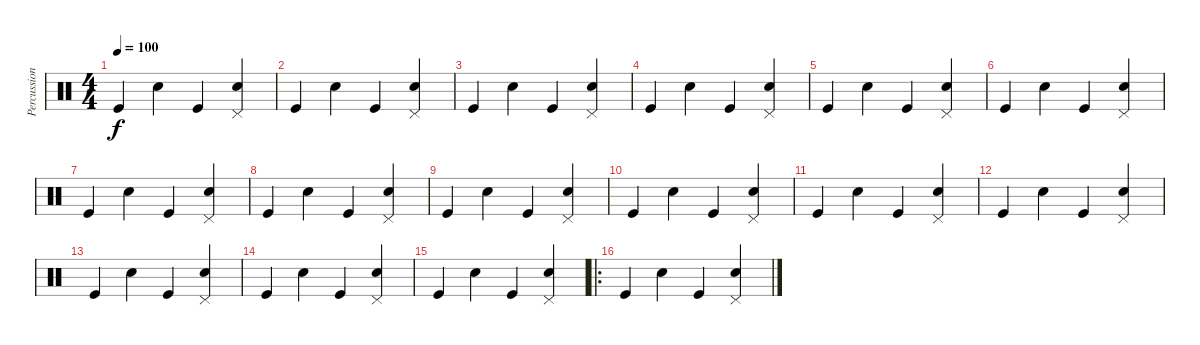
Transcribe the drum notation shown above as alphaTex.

\track ("Percussion" "Percussion") {instrument percussion}
\staff {score}
\articulation defaults
\ts (4 4)
\tempo 100
\clef neutral
\ks c "Kick (hit)".4{dy f} "Snare (hit) 2".4 "Kick (hit)".4
("Pedal Hi-Hat (hit)" "Snare (hit) 2").4 |
"Kick (hit)".4 "Snare (hit) 2".4 "Kick (hit)".4 ("Pedal Hi-Hat (hit)" "Snare (hit) 2").4 |
"Kick (hit)".4 "Snare (hit) 2".4 "Kick (hit)".4 ("Pedal Hi-Hat (hit)" "Snare (hit) 2").4 |
"Kick (hit)".4 "Snare (hit) 2".4 "Kick (hit)".4 ("Pedal Hi-Hat (hit)" "Snare (hit) 2").4 |
"Kick (hit)".4 "Snare (hit) 2".4 "Kick (hit)".4 ("Pedal Hi-Hat (hit)" "Snare (hit) 2").4 |
"Kick (hit)".4 "Snare (hit) 2".4 "Kick (hit)".4 ("Pedal Hi-Hat (hit)" "Snare (hit) 2").4 |
"Kick (hit)".4 "Snare (hit) 2".4 "Kick (hit)".4 ("Pedal Hi-Hat (hit)" "Snare (hit) 2").4 |
"Kick (hit)".4 "Snare (hit) 2".4 "Kick (hit)".4 ("Pedal Hi-Hat (hit)" "Snare (hit) 2").4 |
"Kick (hit)".4 "Snare (hit) 2".4 "Kick (hit)".4 ("Pedal Hi-Hat (hit)" "Snare (hit) 2").4 |
"Kick (hit)".4 "Snare (hit) 2".4 "Kick (hit)".4 ("Pedal Hi-Hat (hit)" "Snare (hit) 2").4 |
"Kick (hit)".4 "Snare (hit) 2".4 "Kick (hit)".4 ("Pedal Hi-Hat (hit)" "Snare (hit) 2").4 |
"Kick (hit)".4 "Snare (hit) 2".4 "Kick (hit)".4 ("Pedal Hi-Hat (hit)" "Snare (hit) 2").4 |
"Kick (hit)".4 "Snare (hit) 2".4 "Kick (hit)".4 ("Pedal Hi-Hat (hit)" "Snare (hit) 2").4 |
"Kick (hit)".4 "Snare (hit) 2".4 "Kick (hit)".4 ("Pedal Hi-Hat (hit)" "Snare (hit) 2").4 |
"Kick (hit)".4 "Snare (hit) 2".4 "Kick (hit)".4 ("Pedal Hi-Hat (hit)" "Snare (hit) 2").4 |
\ro "Kick (hit)".4 "Snare (hit) 2".4 "Kick (hit)".4
("Pedal Hi-Hat (hit)" "Snare (hit) 2").4
